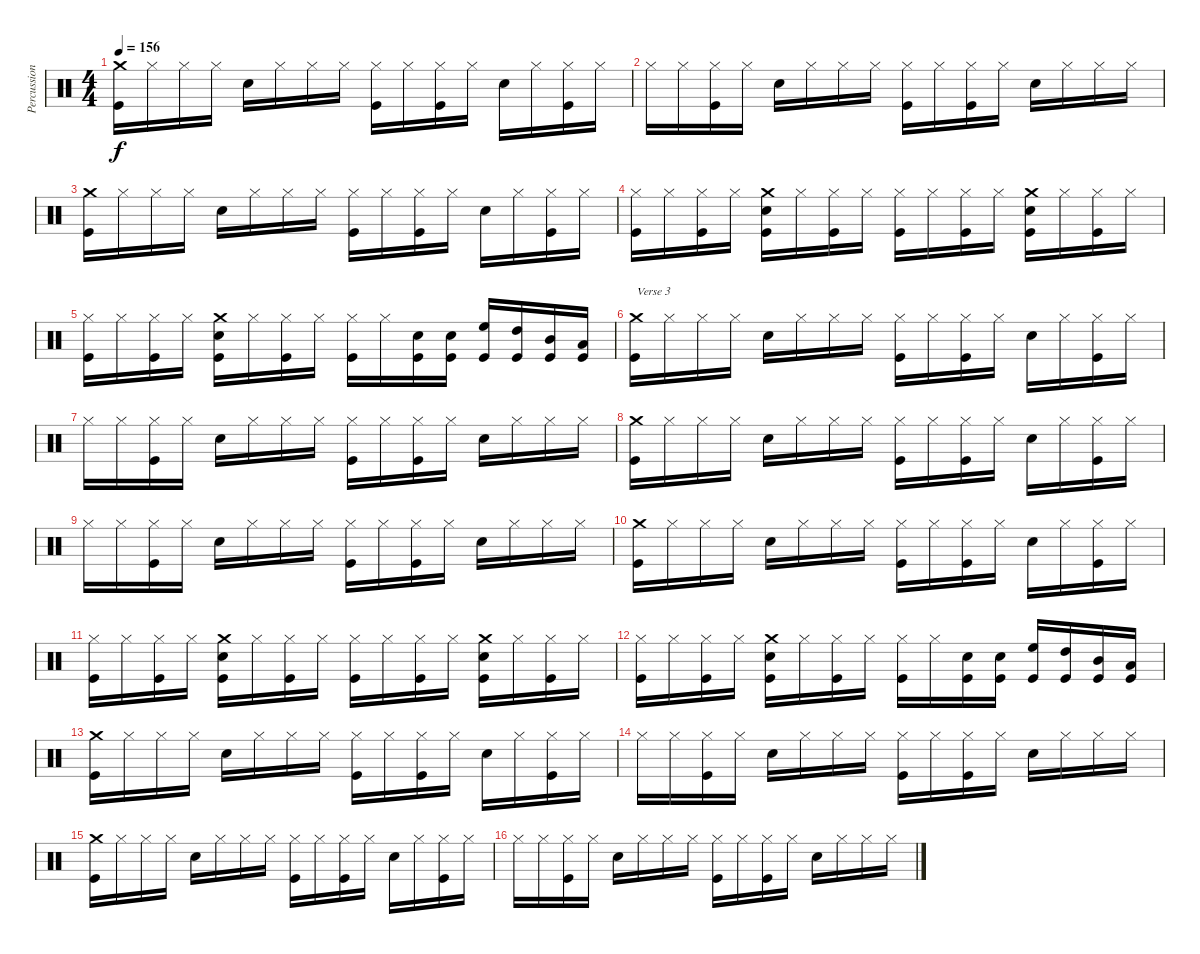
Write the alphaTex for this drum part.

\track ("Percussion" "Percussion") {instrument percussion}
\staff {score}
\articulation defaults
\ts (4 4)
\tempo 156
\clef neutral
\ks c
("Kick (hit)" "Crash medium (hit)").16{dy f} "Hi-Hat (closed)".16 "Hi-Hat (closed)".16 "Hi-Hat (closed)".16 "Snare (hit) 2".16 "Hi-Hat (closed)".16 "Hi-Hat (closed)".16 "Hi-Hat (closed)".16 ("Kick (hit)" "Hi-Hat (closed)").16 "Hi-Hat (closed)".16 ("Kick (hit)" "Hi-Hat (closed)").16 "Hi-Hat (closed)".16 "Snare (hit) 2".16 "Hi-Hat (closed)".16 ("Kick (hit)" "Hi-Hat (closed)").16 "Hi-Hat (closed)".16 |
"Hi-Hat (closed)".16 "Hi-Hat (closed)".16 ("Kick (hit)" "Hi-Hat (closed)").16 "Hi-Hat (closed)".16 "Snare (hit) 2".16 "Hi-Hat (closed)".16 "Hi-Hat (closed)".16 "Hi-Hat (closed)".16 ("Kick (hit)" "Hi-Hat (closed)").16 "Hi-Hat (closed)".16 ("Kick (hit)" "Hi-Hat (closed)").16 "Hi-Hat (closed)".16 "Snare (hit) 2".16 "Hi-Hat (closed)".16 "Hi-Hat (closed)".16 "Hi-Hat (closed)".16 |
("Kick (hit)" "Crash medium (hit)").16 "Hi-Hat (closed)".16 "Hi-Hat (closed)".16 "Hi-Hat (closed)".16 "Snare (hit) 2".16 "Hi-Hat (closed)".16 "Hi-Hat (closed)".16 "Hi-Hat (closed)".16 ("Kick (hit)" "Hi-Hat (closed)").16 "Hi-Hat (closed)".16 ("Kick (hit)" "Hi-Hat (closed)").16 "Hi-Hat (closed)".16 "Snare (hit) 2".16 "Hi-Hat (closed)".16 ("Kick (hit)" "Hi-Hat (closed)").16 "Hi-Hat (closed)".16 |
("Kick (hit)" "Hi-Hat (closed)").16 "Hi-Hat (closed)".16 ("Kick (hit)" "Hi-Hat (closed)").16 "Hi-Hat (closed)".16 ("Kick (hit)" "Snare (hit) 2" "Crash medium (hit)").16 "Hi-Hat (closed)".16 ("Kick (hit)" "Hi-Hat (closed)").16 "Hi-Hat (closed)".16 ("Kick (hit)" "Hi-Hat (closed)").16 "Hi-Hat (closed)".16 ("Kick (hit)" "Hi-Hat (closed)").16 "Hi-Hat (closed)".16 ("Kick (hit)" "Snare (hit) 2" "Crash medium (hit)").16 "Hi-Hat (closed)".16 ("Kick (hit)" "Hi-Hat (closed)").16 "Hi-Hat (closed)".16 |
("Kick (hit)" "Hi-Hat (closed)").16 "Hi-Hat (closed)".16 ("Kick (hit)" "Hi-Hat (closed)").16 "Hi-Hat (closed)".16 ("Kick (hit)" "Snare (hit) 2" "Crash medium (hit)").16 "Hi-Hat (closed)".16 ("Kick (hit)" "Hi-Hat (closed)").16 "Hi-Hat (closed)".16 ("Kick (hit)" "Hi-Hat (closed)").16 "Hi-Hat (closed)".16 ("Snare (hit) 2" "Kick (hit)").16 ("Snare (hit) 2" "Kick (hit)").16 ("High Floor Tom (hit)" "Kick (hit)").16 ("High Tom (hit)" "Kick (hit)").16 ("Mid Tom (hit)" "Kick (hit)").16 ("Low Tom (hit)" "Kick (hit)").16 |
("Kick (hit)" "Crash medium (hit)").16{txt "Verse 3"} "Hi-Hat (closed)".16 "Hi-Hat (closed)".16 "Hi-Hat (closed)".16 "Snare (hit) 2".16 "Hi-Hat (closed)".16 "Hi-Hat (closed)".16 "Hi-Hat (closed)".16 ("Kick (hit)" "Hi-Hat (closed)").16 "Hi-Hat (closed)".16 ("Kick (hit)" "Hi-Hat (closed)").16 "Hi-Hat (closed)".16 "Snare (hit) 2".16 "Hi-Hat (closed)".16 ("Kick (hit)" "Hi-Hat (closed)").16 "Hi-Hat (closed)".16 |
"Hi-Hat (closed)".16 "Hi-Hat (closed)".16 ("Kick (hit)" "Hi-Hat (closed)").16 "Hi-Hat (closed)".16 "Snare (hit) 2".16 "Hi-Hat (closed)".16 "Hi-Hat (closed)".16 "Hi-Hat (closed)".16 ("Kick (hit)" "Hi-Hat (closed)").16 "Hi-Hat (closed)".16 ("Kick (hit)" "Hi-Hat (closed)").16 "Hi-Hat (closed)".16 "Snare (hit) 2".16 "Hi-Hat (closed)".16 "Hi-Hat (closed)".16 "Hi-Hat (closed)".16 |
("Kick (hit)" "Crash medium (hit)").16 "Hi-Hat (closed)".16 "Hi-Hat (closed)".16 "Hi-Hat (closed)".16 "Snare (hit) 2".16 "Hi-Hat (closed)".16 "Hi-Hat (closed)".16 "Hi-Hat (closed)".16 ("Kick (hit)" "Hi-Hat (closed)").16 "Hi-Hat (closed)".16 ("Kick (hit)" "Hi-Hat (closed)").16 "Hi-Hat (closed)".16 "Snare (hit) 2".16 "Hi-Hat (closed)".16 ("Kick (hit)" "Hi-Hat (closed)").16 "Hi-Hat (closed)".16 |
"Hi-Hat (closed)".16 "Hi-Hat (closed)".16 ("Kick (hit)" "Hi-Hat (closed)").16 "Hi-Hat (closed)".16 "Snare (hit) 2".16 "Hi-Hat (closed)".16 "Hi-Hat (closed)".16 "Hi-Hat (closed)".16 ("Kick (hit)" "Hi-Hat (closed)").16 "Hi-Hat (closed)".16 ("Kick (hit)" "Hi-Hat (closed)").16 "Hi-Hat (closed)".16 "Snare (hit) 2".16 "Hi-Hat (closed)".16 "Hi-Hat (closed)".16 "Hi-Hat (closed)".16 |
("Kick (hit)" "Crash medium (hit)").16 "Hi-Hat (closed)".16 "Hi-Hat (closed)".16 "Hi-Hat (closed)".16 "Snare (hit) 2".16 "Hi-Hat (closed)".16 "Hi-Hat (closed)".16 "Hi-Hat (closed)".16 ("Kick (hit)" "Hi-Hat (closed)").16 "Hi-Hat (closed)".16 ("Kick (hit)" "Hi-Hat (closed)").16 "Hi-Hat (closed)".16 "Snare (hit) 2".16 "Hi-Hat (closed)".16 ("Kick (hit)" "Hi-Hat (closed)").16 "Hi-Hat (closed)".16 |
("Kick (hit)" "Hi-Hat (closed)").16 "Hi-Hat (closed)".16 ("Kick (hit)" "Hi-Hat (closed)").16 "Hi-Hat (closed)".16 ("Kick (hit)" "Snare (hit) 2" "Crash medium (hit)").16 "Hi-Hat (closed)".16 ("Kick (hit)" "Hi-Hat (closed)").16 "Hi-Hat (closed)".16 ("Kick (hit)" "Hi-Hat (closed)").16 "Hi-Hat (closed)".16 ("Kick (hit)" "Hi-Hat (closed)").16 "Hi-Hat (closed)".16 ("Kick (hit)" "Snare (hit) 2" "Crash medium (hit)").16 "Hi-Hat (closed)".16 ("Kick (hit)" "Hi-Hat (closed)").16 "Hi-Hat (closed)".16 |
("Kick (hit)" "Hi-Hat (closed)").16 "Hi-Hat (closed)".16 ("Kick (hit)" "Hi-Hat (closed)").16 "Hi-Hat (closed)".16 ("Kick (hit)" "Snare (hit) 2" "Crash medium (hit)").16 "Hi-Hat (closed)".16 ("Kick (hit)" "Hi-Hat (closed)").16 "Hi-Hat (closed)".16 ("Kick (hit)" "Hi-Hat (closed)").16 "Hi-Hat (closed)".16 ("Snare (hit) 2" "Kick (hit)").16 ("Snare (hit) 2" "Kick (hit)").16 ("High Floor Tom (hit)" "Kick (hit)").16 ("High Tom (hit)" "Kick (hit)").16 ("Mid Tom (hit)" "Kick (hit)").16 ("Low Tom (hit)" "Kick (hit)").16 |
("Kick (hit)" "Crash medium (hit)").16 "Hi-Hat (closed)".16 "Hi-Hat (closed)".16 "Hi-Hat (closed)".16 "Snare (hit) 2".16 "Hi-Hat (closed)".16 "Hi-Hat (closed)".16 "Hi-Hat (closed)".16 ("Kick (hit)" "Hi-Hat (closed)").16 "Hi-Hat (closed)".16 ("Kick (hit)" "Hi-Hat (closed)").16 "Hi-Hat (closed)".16 "Snare (hit) 2".16 "Hi-Hat (closed)".16 ("Kick (hit)" "Hi-Hat (closed)").16 "Hi-Hat (closed)".16 |
"Hi-Hat (closed)".16 "Hi-Hat (closed)".16 ("Kick (hit)" "Hi-Hat (closed)").16 "Hi-Hat (closed)".16 "Snare (hit) 2".16 "Hi-Hat (closed)".16 "Hi-Hat (closed)".16 "Hi-Hat (closed)".16 ("Kick (hit)" "Hi-Hat (closed)").16 "Hi-Hat (closed)".16 ("Kick (hit)" "Hi-Hat (closed)").16 "Hi-Hat (closed)".16 "Snare (hit) 2".16 "Hi-Hat (closed)".16 "Hi-Hat (closed)".16 "Hi-Hat (closed)".16 |
("Kick (hit)" "Crash medium (hit)").16 "Hi-Hat (closed)".16 "Hi-Hat (closed)".16 "Hi-Hat (closed)".16 "Snare (hit) 2".16 "Hi-Hat (closed)".16 "Hi-Hat (closed)".16 "Hi-Hat (closed)".16 ("Kick (hit)" "Hi-Hat (closed)").16 "Hi-Hat (closed)".16 ("Kick (hit)" "Hi-Hat (closed)").16 "Hi-Hat (closed)".16 "Snare (hit) 2".16 "Hi-Hat (closed)".16 ("Kick (hit)" "Hi-Hat (closed)").16 "Hi-Hat (closed)".16 |
"Hi-Hat (closed)".16 "Hi-Hat (closed)".16 ("Kick (hit)" "Hi-Hat (closed)").16 "Hi-Hat (closed)".16 "Snare (hit) 2".16 "Hi-Hat (closed)".16 "Hi-Hat (closed)".16 "Hi-Hat (closed)".16 ("Kick (hit)" "Hi-Hat (closed)").16 "Hi-Hat (closed)".16 ("Kick (hit)" "Hi-Hat (closed)").16 "Hi-Hat (closed)".16 "Snare (hit) 2".16 "Hi-Hat (closed)".16 "Hi-Hat (closed)".16 "Hi-Hat (closed)".16
